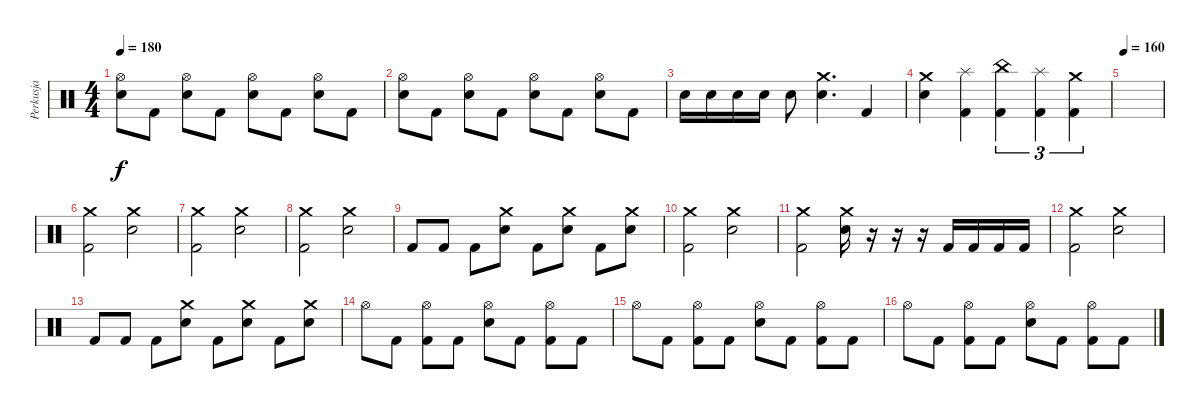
\track ("Perkusja" "Perkusja") {instrument percussion}
\staff {score}
\articulation defaults
\ts (4 4)
\tempo 180
\clef neutral
\ks c
("Hi-Hat (open)" "Electric Snare (hit)").8{dy f} "Kick (hit) 2".8 ("Hi-Hat (open)" "Electric Snare (hit)").8 "Kick (hit) 2".8 ("Hi-Hat (open)" "Electric Snare (hit)").8 "Kick (hit) 2".8 ("Hi-Hat (open)" "Electric Snare (hit)").8 "Kick (hit) 2".8 |
("Hi-Hat (open)" "Electric Snare (hit)").8 "Kick (hit) 2".8 ("Hi-Hat (open)" "Electric Snare (hit)").8 "Kick (hit) 2".8 ("Hi-Hat (open)" "Electric Snare (hit)").8 "Kick (hit) 2".8 ("Hi-Hat (open)" "Electric Snare (hit)").8 "Kick (hit) 2".8 |
"Electric Snare (hit)".16 "Electric Snare (hit)".16 "Electric Snare (hit)".16 "Electric Snare (hit)".16 "Electric Snare (hit)".8 ("Crash medium (hit)" "Electric Snare (hit)").4{d} "Kick (hit) 2".4 |
("Crash medium (hit)" "Electric Snare (hit)").4 ("Splash (hit)" "Kick (hit) 2").4 ("China (hit)" "Kick (hit) 2").4{tu (3 2)} ("Splash (hit)" "Kick (hit) 2").4{tu (3 2)} ("Crash medium (hit)" "Kick (hit) 2").4{tu (3 2)} |
\tempo 160
|
("Crash medium (hit)" "Kick (hit) 2").2 ("Crash medium (hit)" "Electric Snare (hit)").2 |
("Crash medium (hit)" "Kick (hit) 2").2 ("Crash medium (hit)" "Electric Snare (hit)").2 |
("Crash medium (hit)" "Kick (hit) 2").2 ("Crash medium (hit)" "Electric Snare (hit)").2 |
"Kick (hit) 2".8 "Kick (hit) 2".8 "Kick (hit) 2".8 ("Crash medium (hit)" "Electric Snare (hit)").8 "Kick (hit) 2".8 ("Crash medium (hit)" "Electric Snare (hit)").8 "Kick (hit) 2".8 ("Crash medium (hit)" "Electric Snare (hit)").8 |
("Crash medium (hit)" "Kick (hit) 2").2 ("Crash medium (hit)" "Electric Snare (hit)").2 |
("Crash medium (hit)" "Kick (hit) 2").2 ("Crash medium (hit)" "Electric Snare (hit)").16 r.16 r.16 r.16 "Kick (hit) 2".16 "Kick (hit) 2".16 "Kick (hit) 2".16 "Kick (hit) 2".16 |
("Crash medium (hit)" "Kick (hit) 2").2 ("Crash medium (hit)" "Electric Snare (hit)").2 |
"Kick (hit) 2".8 "Kick (hit) 2".8 "Kick (hit) 2".8 ("Crash medium (hit)" "Electric Snare (hit)").8 "Kick (hit) 2".8 ("Crash medium (hit)" "Electric Snare (hit)").8 "Kick (hit) 2".8 ("Crash medium (hit)" "Electric Snare (hit)").8 |
"Hi-Hat (open)".8 "Kick (hit) 2".8 ("Hi-Hat (open)" "Kick (hit) 2").8 "Kick (hit) 2".8 ("Hi-Hat (open)" "Electric Snare (hit)").8 "Kick (hit) 2".8 ("Hi-Hat (open)" "Kick (hit) 2").8 "Kick (hit) 2".8 |
"Hi-Hat (open)".8 "Kick (hit) 2".8 ("Hi-Hat (open)" "Kick (hit) 2").8 "Kick (hit) 2".8 ("Hi-Hat (open)" "Electric Snare (hit)").8 "Kick (hit) 2".8 ("Hi-Hat (open)" "Kick (hit) 2").8 "Kick (hit) 2".8 |
"Hi-Hat (open)".8 "Kick (hit) 2".8 ("Hi-Hat (open)" "Kick (hit) 2").8 "Kick (hit) 2".8 ("Hi-Hat (open)" "Electric Snare (hit)").8 "Kick (hit) 2".8 ("Hi-Hat (open)" "Kick (hit) 2").8 "Kick (hit) 2".8
